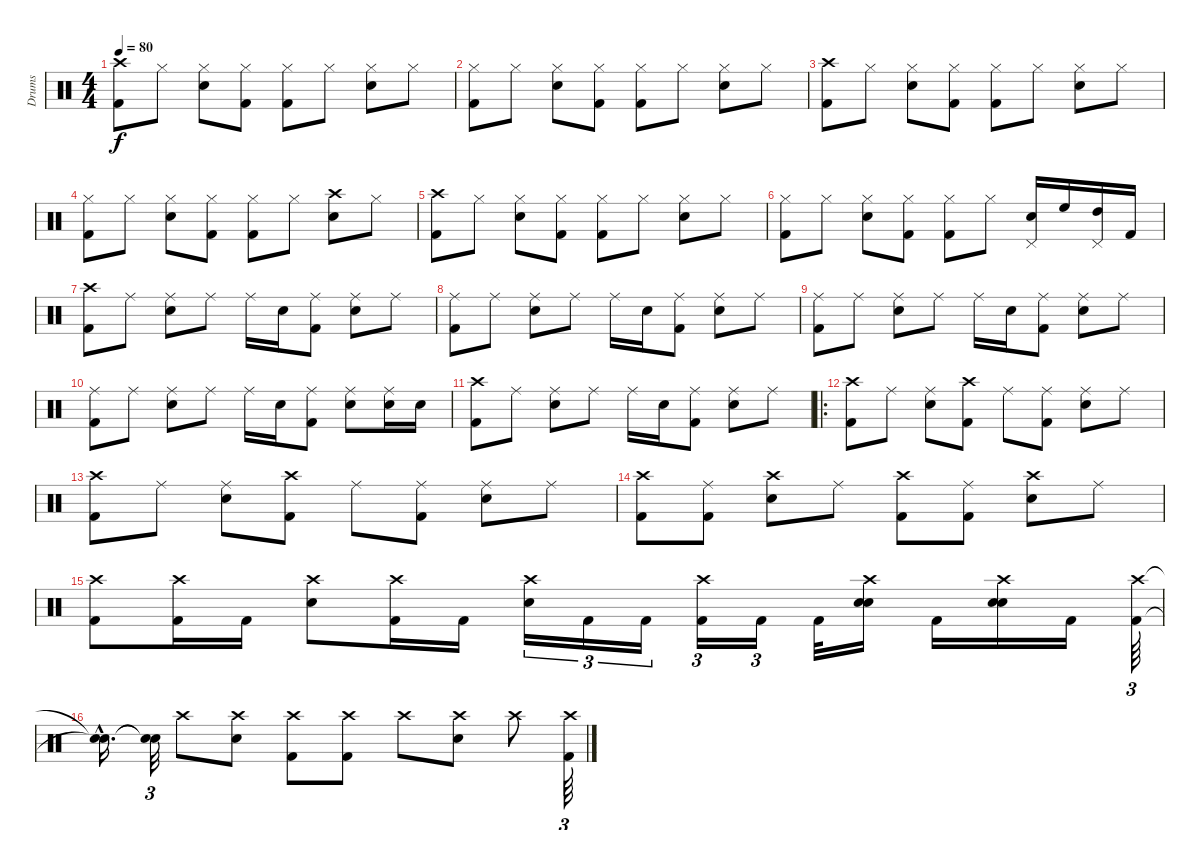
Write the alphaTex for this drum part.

\track ("Drums" "Drums") {instrument percussion}
\staff {score}
\articulation defaults
\ts (4 4)
\tempo 80
\clef neutral
\ks c
("Crash high (hit)" "Kick (hit) 2").8{dy f} "Hi-Hat (closed)".8 ("Hi-Hat (closed)" "Electric Snare (hit)").8 ("Hi-Hat (closed)" "Kick (hit) 2").8 ("Hi-Hat (closed)" "Kick (hit) 2").8 "Hi-Hat (closed)".8 ("Hi-Hat (closed)" "Electric Snare (hit)").8 "Hi-Hat (closed)".8 |
("Hi-Hat (closed)" "Kick (hit) 2").8 "Hi-Hat (closed)".8 ("Hi-Hat (closed)" "Electric Snare (hit)").8 ("Hi-Hat (closed)" "Kick (hit) 2").8 ("Hi-Hat (closed)" "Kick (hit) 2").8 "Hi-Hat (closed)".8 ("Hi-Hat (closed)" "Electric Snare (hit)").8 "Hi-Hat (closed)".8 |
("Crash high (hit)" "Kick (hit) 2").8 "Hi-Hat (closed)".8 ("Hi-Hat (closed)" "Electric Snare (hit)").8 ("Hi-Hat (closed)" "Kick (hit) 2").8 ("Hi-Hat (closed)" "Kick (hit) 2").8 "Hi-Hat (closed)".8 ("Hi-Hat (closed)" "Electric Snare (hit)").8 "Hi-Hat (closed)".8 |
("Hi-Hat (closed)" "Kick (hit) 2").8 "Hi-Hat (closed)".8 ("Hi-Hat (closed)" "Electric Snare (hit)").8 ("Hi-Hat (closed)" "Kick (hit) 2").8 ("Hi-Hat (closed)" "Kick (hit) 2").8 "Hi-Hat (closed)".8 ("Crash high (hit)" "Electric Snare (hit)").8 "Hi-Hat (closed)".8 |
("Crash high (hit)" "Kick (hit) 2").8 "Hi-Hat (closed)".8 ("Hi-Hat (closed)" "Electric Snare (hit)").8 ("Hi-Hat (closed)" "Kick (hit) 2").8 ("Hi-Hat (closed)" "Kick (hit) 2").8 "Hi-Hat (closed)".8 ("Hi-Hat (closed)" "Electric Snare (hit)").8 "Hi-Hat (closed)".8 |
("Hi-Hat (closed)" "Kick (hit) 2").8 "Hi-Hat (closed)".8 ("Hi-Hat (closed)" "Electric Snare (hit)").8 ("Hi-Hat (closed)" "Kick (hit) 2").8 ("Hi-Hat (closed)" "Kick (hit) 2").8 "Hi-Hat (closed)".8 ("Pedal Hi-Hat (hit)" "Electric Snare (hit)").16 "High Floor Tom (hit)".16 ("Pedal Hi-Hat (hit)" "High Tom (hit)").16 "Kick (hit) 2".16 |
("Crash high (hit)" "Kick (hit) 2").8 "Ride (middle)".8 ("Ride (middle)" "Electric Snare (hit)").8 "Ride (middle)".8 "Ride (middle)".16 "Electric Snare (hit)".16 ("Ride (middle)" "Kick (hit) 2").8 ("Ride (middle)" "Electric Snare (hit)").8 "Ride (middle)".8 |
("Ride (middle)" "Kick (hit) 2").8 "Ride (middle)".8 ("Ride (middle)" "Electric Snare (hit)").8 "Ride (middle)".8 "Ride (middle)".16 "Electric Snare (hit)".16 ("Ride (middle)" "Kick (hit) 2").8 ("Ride (middle)" "Electric Snare (hit)").8 "Ride (middle)".8 |
("Ride (middle)" "Kick (hit) 2").8 "Ride (middle)".8 ("Ride (middle)" "Electric Snare (hit)").8 "Ride (middle)".8 "Ride (middle)".16 "Electric Snare (hit)".16 ("Ride (middle)" "Kick (hit) 2").8 ("Ride (middle)" "Electric Snare (hit)").8 "Ride (middle)".8 |
("Ride (middle)" "Kick (hit) 2").8 "Ride (middle)".8 ("Ride (middle)" "Electric Snare (hit)").8 "Ride (middle)".8 "Ride (middle)".16 "Electric Snare (hit)".16 ("Ride (middle)" "Kick (hit) 2").8 ("Ride (middle)" "Electric Snare (hit)").8 ("Ride (middle)" "Electric Snare (hit)").16 "Electric Snare (hit)".16 |
("Crash high (hit)" "Kick (hit) 2").8 "Ride (middle)".8 ("Ride (middle)" "Electric Snare (hit)").8 "Ride (middle)".8 "Ride (middle)".16 "Electric Snare (hit)".16 ("Ride (middle)" "Kick (hit) 2").8 ("Ride (middle)" "Electric Snare (hit)").8 "Ride (middle)".8 |
\ro
("Crash high (hit)" "Kick (hit) 2").8 "Ride (middle)".8 ("Ride (middle)" "Electric Snare (hit)").8 ("Crash high (hit)" "Kick (hit) 2").8 "Ride (middle)".8 ("Ride (middle)" "Kick (hit) 2").8 ("Ride (middle)" "Electric Snare (hit)").8 "Ride (middle)".8 |
("Crash high (hit)" "Kick (hit) 2").8 "Ride (middle)".8 ("Ride (middle)" "Electric Snare (hit)").8 ("Crash high (hit)" "Kick (hit) 2").8 "Ride (middle)".8 ("Ride (middle)" "Kick (hit) 2").8 ("Ride (middle)" "Electric Snare (hit)").8 "Ride (middle)".8 |
("Crash high (hit)" "Kick (hit) 2").8 ("Ride (middle)" "Kick (hit) 2").8 ("Crash high (hit)" "Electric Snare (hit)").8 "Ride (middle)".8 ("Crash high (hit)" "Kick (hit) 2").8 ("Ride (middle)" "Kick (hit) 2").8 ("Crash high (hit)" "Electric Snare (hit)").8 "Ride (middle)".8 |
("Crash high (hit)" "Kick (hit) 2").8 ("Crash high (hit)" "Kick (hit) 2").16 "Kick (hit) 2".16 ("Crash high (hit)" "Electric Snare (hit)").8 ("Crash high (hit)" "Kick (hit) 2").16 "Kick (hit) 2".16 ("Crash high (hit)" "Electric Snare (hit)").16{tu (3 2)} "Kick (hit) 2".16{tu (3 2)} "Kick (hit) 2".16{tu (3 2)} ("Crash high (hit)" "Kick (hit) 2").16{tu (3 2)} "Kick (hit) 2".16{tu (3 2)} "Kick (hit) 2".32 ("Electric Snare (hit)" "Crash high (hit)" "Electric Snare (hit)").16 "Kick (hit) 2".16 ("Electric Snare (hit)" "Crash high (hit)" "Electric Snare (hit)").16 "Kick (hit) 2".16 ("Crash high (hit)" "Kick (hit) 2").64{tu (3 2)} |
("Snare (hit)"{hac t} "Snare (hit)"{hac t}).16{d} ("Snare (hit)"{t} "Snare (hit)"{t}).32{tu (3 2)} "Crash high (hit)".8 ("Crash high (hit)" "Electric Snare (hit)").8 ("Crash high (hit)" "Kick (hit) 2").8 ("Crash high (hit)" "Kick (hit) 2").8 "Crash high (hit)".8 ("Crash high (hit)" "Electric Snare (hit)").8 "Crash high (hit)".8 ("Crash high (hit)" "Kick (hit) 2").64{tu (3 2)}
